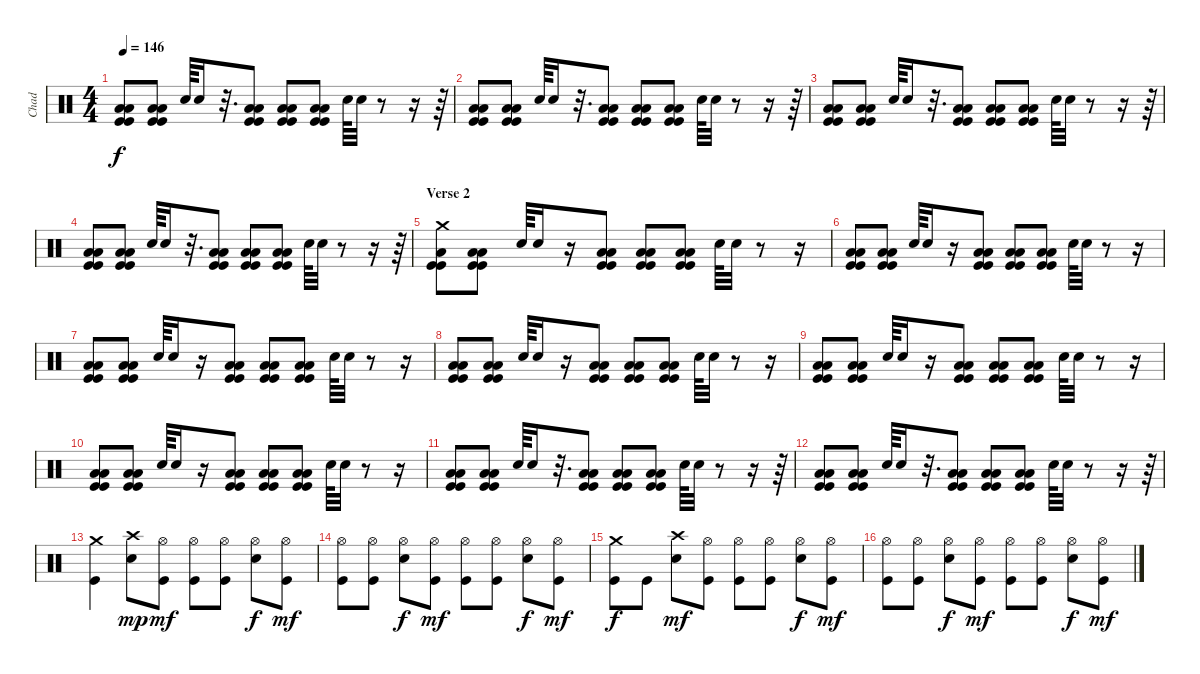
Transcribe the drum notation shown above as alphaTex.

\track ("Chad" "Chad") {instrument percussion}
\staff {score}
\articulation defaults
\ts (4 4)
\tempo 146
\clef neutral
\ks c
("Low Tom (hit)" "Low Floor Tom (hit)" "Kick (hit)" "Kick (hit)").8{dy f} ("Low Tom (hit)" "Low Floor Tom (hit)" "Kick (hit)" "Kick (hit)").8 "Snare (hit) 2".64 "Snare (hit) 2".16 r.32{d} ("Low Tom (hit)" "Low Floor Tom (hit)" "Kick (hit)" "Kick (hit)").8 ("Low Tom (hit)" "Low Floor Tom (hit)" "Kick (hit)" "Kick (hit)").8 ("Low Tom (hit)" "Low Floor Tom (hit)" "Kick (hit)" "Kick (hit)").8 "Snare (hit) 2".64 "Snare (hit) 2".32 r.8 r.16 r.64 |
("Low Tom (hit)" "Low Floor Tom (hit)" "Kick (hit)" "Kick (hit)").8 ("Low Tom (hit)" "Low Floor Tom (hit)" "Kick (hit)" "Kick (hit)").8 "Snare (hit) 2".64 "Snare (hit) 2".16 r.32{d} ("Low Tom (hit)" "Low Floor Tom (hit)" "Kick (hit)" "Kick (hit)").8 ("Low Tom (hit)" "Low Floor Tom (hit)" "Kick (hit)" "Kick (hit)").8 ("Low Tom (hit)" "Low Floor Tom (hit)" "Kick (hit)" "Kick (hit)").8 "Snare (hit) 2".64 "Snare (hit) 2".32 r.8 r.16 r.64 |
("Low Tom (hit)" "Low Floor Tom (hit)" "Kick (hit)" "Kick (hit)").8 ("Low Tom (hit)" "Low Floor Tom (hit)" "Kick (hit)" "Kick (hit)").8 "Snare (hit) 2".64 "Snare (hit) 2".16 r.32{d} ("Low Tom (hit)" "Low Floor Tom (hit)" "Kick (hit)" "Kick (hit)").8 ("Low Tom (hit)" "Low Floor Tom (hit)" "Kick (hit)" "Kick (hit)").8 ("Low Tom (hit)" "Low Floor Tom (hit)" "Kick (hit)" "Kick (hit)").8 "Snare (hit) 2".64 "Snare (hit) 2".32 r.8 r.16 r.64 |
("Low Tom (hit)" "Low Floor Tom (hit)" "Kick (hit)" "Kick (hit)").8 ("Low Tom (hit)" "Low Floor Tom (hit)" "Kick (hit)" "Kick (hit)").8 "Snare (hit) 2".64 "Snare (hit) 2".16 r.32{d} ("Low Tom (hit)" "Low Floor Tom (hit)" "Kick (hit)" "Kick (hit)").8 ("Low Tom (hit)" "Low Floor Tom (hit)" "Kick (hit)" "Kick (hit)").8 ("Low Tom (hit)" "Low Floor Tom (hit)" "Kick (hit)" "Kick (hit)").8 "Snare (hit) 2".64 "Snare (hit) 2".32 r.8 r.16 r.64 |
\section ("" "Verse 2")
("Crash medium (hit)" "Low Tom (hit)" "Kick (hit)" "Kick (hit)").8 ("Low Tom (hit)" "Low Floor Tom (hit)" "Kick (hit)" "Kick (hit)").8 "Snare (hit) 2".64 "Snare (hit) 2".16 r.16 ("Low Tom (hit)" "Low Floor Tom (hit)" "Kick (hit)" "Kick (hit)").8 ("Low Tom (hit)" "Low Floor Tom (hit)" "Kick (hit)" "Kick (hit)").8 ("Low Tom (hit)" "Low Floor Tom (hit)" "Kick (hit)" "Kick (hit)").8 "Snare (hit) 2".64 "Snare (hit) 2".32 r.8 r.16 |
("Low Tom (hit)" "Low Floor Tom (hit)" "Kick (hit)" "Kick (hit)").8 ("Low Tom (hit)" "Low Floor Tom (hit)" "Kick (hit)" "Kick (hit)").8 "Snare (hit) 2".64 "Snare (hit) 2".16 r.16 ("Low Tom (hit)" "Low Floor Tom (hit)" "Kick (hit)" "Kick (hit)").8 ("Low Tom (hit)" "Low Floor Tom (hit)" "Kick (hit)" "Kick (hit)").8 ("Low Tom (hit)" "Low Floor Tom (hit)" "Kick (hit)" "Kick (hit)").8 "Snare (hit) 2".64 "Snare (hit) 2".32 r.8 r.16 |
("Low Tom (hit)" "Low Floor Tom (hit)" "Kick (hit)" "Kick (hit)").8 ("Low Tom (hit)" "Low Floor Tom (hit)" "Kick (hit)" "Kick (hit)").8 "Snare (hit) 2".64 "Snare (hit) 2".16 r.16 ("Low Tom (hit)" "Low Floor Tom (hit)" "Kick (hit)" "Kick (hit)").8 ("Low Tom (hit)" "Low Floor Tom (hit)" "Kick (hit)" "Kick (hit)").8 ("Low Tom (hit)" "Low Floor Tom (hit)" "Kick (hit)" "Kick (hit)").8 "Snare (hit) 2".64 "Snare (hit) 2".32 r.8 r.16 |
("Low Tom (hit)" "Low Floor Tom (hit)" "Kick (hit)" "Kick (hit)").8 ("Low Tom (hit)" "Low Floor Tom (hit)" "Kick (hit)" "Kick (hit)").8 "Snare (hit) 2".64 "Snare (hit) 2".16 r.16 ("Low Tom (hit)" "Low Floor Tom (hit)" "Kick (hit)" "Kick (hit)").8 ("Low Tom (hit)" "Low Floor Tom (hit)" "Kick (hit)" "Kick (hit)").8 ("Low Tom (hit)" "Low Floor Tom (hit)" "Kick (hit)" "Kick (hit)").8 "Snare (hit) 2".64 "Snare (hit) 2".32 r.8 r.16 |
("Low Tom (hit)" "Low Floor Tom (hit)" "Kick (hit)" "Kick (hit)").8 ("Low Tom (hit)" "Low Floor Tom (hit)" "Kick (hit)" "Kick (hit)").8 "Snare (hit) 2".64 "Snare (hit) 2".16 r.16 ("Low Tom (hit)" "Low Floor Tom (hit)" "Kick (hit)" "Kick (hit)").8 ("Low Tom (hit)" "Low Floor Tom (hit)" "Kick (hit)" "Kick (hit)").8 ("Low Tom (hit)" "Low Floor Tom (hit)" "Kick (hit)" "Kick (hit)").8 "Snare (hit) 2".64 "Snare (hit) 2".32 r.8 r.16 |
("Low Tom (hit)" "Low Floor Tom (hit)" "Kick (hit)" "Kick (hit)").8 ("Low Tom (hit)" "Low Floor Tom (hit)" "Kick (hit)" "Kick (hit)").8 "Snare (hit) 2".64 "Snare (hit) 2".16 r.16 ("Low Tom (hit)" "Low Floor Tom (hit)" "Kick (hit)" "Kick (hit)").8 ("Low Tom (hit)" "Low Floor Tom (hit)" "Kick (hit)" "Kick (hit)").8 ("Low Tom (hit)" "Low Floor Tom (hit)" "Kick (hit)" "Kick (hit)").8 "Snare (hit) 2".64 "Snare (hit) 2".32 r.8 r.16 |
("Low Tom (hit)" "Low Floor Tom (hit)" "Kick (hit)" "Kick (hit)").8 ("Low Tom (hit)" "Low Floor Tom (hit)" "Kick (hit)" "Kick (hit)").8 "Snare (hit) 2".64 "Snare (hit) 2".16 r.32{d} ("Low Tom (hit)" "Low Floor Tom (hit)" "Kick (hit)" "Kick (hit)").8 ("Low Tom (hit)" "Low Floor Tom (hit)" "Kick (hit)" "Kick (hit)").8 ("Low Tom (hit)" "Low Floor Tom (hit)" "Kick (hit)" "Kick (hit)").8 "Snare (hit) 2".64 "Snare (hit) 2".32 r.8 r.16 r.64 |
("Low Tom (hit)" "Low Floor Tom (hit)" "Kick (hit)" "Kick (hit)").8 ("Low Tom (hit)" "Low Floor Tom (hit)" "Kick (hit)" "Kick (hit)").8 "Snare (hit) 2".64 "Snare (hit) 2".16 r.32{d} ("Low Tom (hit)" "Low Floor Tom (hit)" "Kick (hit)" "Kick (hit)").8 ("Low Tom (hit)" "Low Floor Tom (hit)" "Kick (hit)" "Kick (hit)").8 ("Low Tom (hit)" "Low Floor Tom (hit)" "Kick (hit)" "Kick (hit)").8 "Snare (hit) 2".64 "Snare (hit) 2".32 r.8 r.16 r.64 |
("Crash medium (hit)" "Kick (hit)").4 ("Crash high (hit)" "Snare (hit) 2").8{dy mp} ("Hi-Hat (open)" "Kick (hit)").8{dy mf} ("Hi-Hat (open)" "Kick (hit)").8 ("Hi-Hat (open)" "Kick (hit)").8 ("Hi-Hat (open)" "Snare (hit) 2").8{dy f} ("Hi-Hat (open)" "Kick (hit)").8{dy mf} |
("Hi-Hat (open)" "Kick (hit)").8 ("Hi-Hat (open)" "Kick (hit)").8 ("Hi-Hat (open)" "Snare (hit) 2").8{dy f} ("Hi-Hat (open)" "Kick (hit)").8{dy mf} ("Hi-Hat (open)" "Kick (hit)").8 ("Hi-Hat (open)" "Kick (hit)").8 ("Hi-Hat (open)" "Snare (hit) 2").8{dy f} ("Hi-Hat (open)" "Kick (hit)").8{dy mf} |
("Crash medium (hit)" "Kick (hit)").8{dy f} "Kick (hit)".8 ("Crash high (hit)" "Snare (hit) 2").8{dy mf} ("Hi-Hat (open)" "Kick (hit)").8 ("Hi-Hat (open)" "Kick (hit)").8 ("Hi-Hat (open)" "Kick (hit)").8 ("Hi-Hat (open)" "Snare (hit) 2").8{dy f} ("Hi-Hat (open)" "Kick (hit)").8{dy mf} |
("Hi-Hat (open)" "Kick (hit)").8 ("Hi-Hat (open)" "Kick (hit)").8 ("Hi-Hat (open)" "Snare (hit) 2").8{dy f} ("Hi-Hat (open)" "Kick (hit)").8{dy mf} ("Hi-Hat (open)" "Kick (hit)").8 ("Hi-Hat (open)" "Kick (hit)").8 ("Hi-Hat (open)" "Snare (hit) 2").8{dy f} ("Hi-Hat (open)" "Kick (hit)").8{dy mf}
